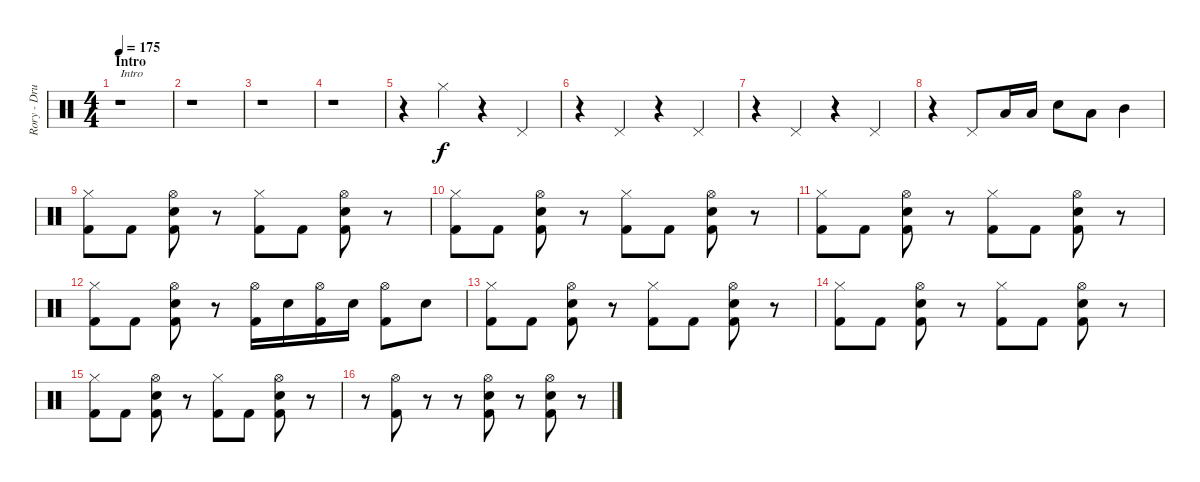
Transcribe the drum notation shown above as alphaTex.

\track ("Rory - Drums" "Rory - Dru") {instrument percussion}
\staff {score}
\articulation defaults
\ts (4 4)
\section ("" "Intro")
\tempo 175
\clef neutral
\ks c
r.1{txt "Intro" dy f} |
r.1 |
r.1 |
r.1 |
r.4 "Hi-Hat (closed)".4 r.4 "Pedal Hi-Hat (hit)".4 |
r.4 "Pedal Hi-Hat (hit)".4 r.4 "Pedal Hi-Hat (hit)".4 |
r.4 "Pedal Hi-Hat (hit)".4 r.4 "Pedal Hi-Hat (hit)".4 |
r.4 "Pedal Hi-Hat (hit)".8 "Low Tom (hit)".16 "Low Tom (hit)".16 "Snare (hit) 2".8 "Low Tom (hit)".8 "Mid Tom (hit)".4 |
("Kick (hit) 2" "Hi-Hat (closed)").8 "Kick (hit) 2".8 ("Kick (hit) 2" "Hi-Hat (open)" "Snare (hit) 2").8 r.8 ("Kick (hit) 2" "Hi-Hat (closed)").8 "Kick (hit) 2".8 ("Kick (hit) 2" "Hi-Hat (open)" "Snare (hit) 2").8 r.8 |
("Kick (hit) 2" "Hi-Hat (closed)").8 "Kick (hit) 2".8 ("Kick (hit) 2" "Hi-Hat (open)" "Snare (hit) 2").8 r.8 ("Kick (hit) 2" "Hi-Hat (closed)").8 "Kick (hit) 2".8 ("Kick (hit) 2" "Hi-Hat (open)" "Snare (hit) 2").8 r.8 |
("Kick (hit) 2" "Hi-Hat (closed)").8 "Kick (hit) 2".8 ("Kick (hit) 2" "Hi-Hat (open)" "Snare (hit) 2").8 r.8 ("Kick (hit) 2" "Hi-Hat (closed)").8 "Kick (hit) 2".8 ("Kick (hit) 2" "Hi-Hat (open)" "Snare (hit) 2").8 r.8 |
("Kick (hit) 2" "Hi-Hat (closed)").8 "Kick (hit) 2".8 ("Kick (hit) 2" "Hi-Hat (open)" "Snare (hit) 2").8 r.8 ("Kick (hit) 2" "Hi-Hat (open)").16 "Snare (hit) 2".16 ("Kick (hit) 2" "Hi-Hat (open)").16 "Snare (hit) 2".16 ("Kick (hit) 2" "Hi-Hat (open)").8 "Snare (hit) 2".8 |
("Kick (hit) 2" "Hi-Hat (closed)").8 "Kick (hit) 2".8 ("Kick (hit) 2" "Hi-Hat (open)" "Snare (hit) 2").8 r.8 ("Kick (hit) 2" "Hi-Hat (closed)").8 "Kick (hit) 2".8 ("Kick (hit) 2" "Hi-Hat (open)" "Snare (hit) 2").8 r.8 |
("Kick (hit) 2" "Hi-Hat (closed)").8 "Kick (hit) 2".8 ("Kick (hit) 2" "Hi-Hat (open)" "Snare (hit) 2").8 r.8 ("Kick (hit) 2" "Hi-Hat (closed)").8 "Kick (hit) 2".8 ("Kick (hit) 2" "Hi-Hat (open)" "Snare (hit) 2").8 r.8 |
("Kick (hit) 2" "Hi-Hat (closed)").8 "Kick (hit) 2".8 ("Kick (hit) 2" "Hi-Hat (open)" "Snare (hit) 2").8 r.8 ("Kick (hit) 2" "Hi-Hat (closed)").8 "Kick (hit) 2".8 ("Kick (hit) 2" "Hi-Hat (open)" "Snare (hit) 2").8 r.8 |
r.8 ("Kick (hit) 2" "Hi-Hat (open)").8 r.8 r.8 ("Kick (hit) 2" "Hi-Hat (open)" "Snare (hit) 2").8 r.8 ("Kick (hit) 2" "Hi-Hat (open)" "Snare (hit) 2").8 r.8
